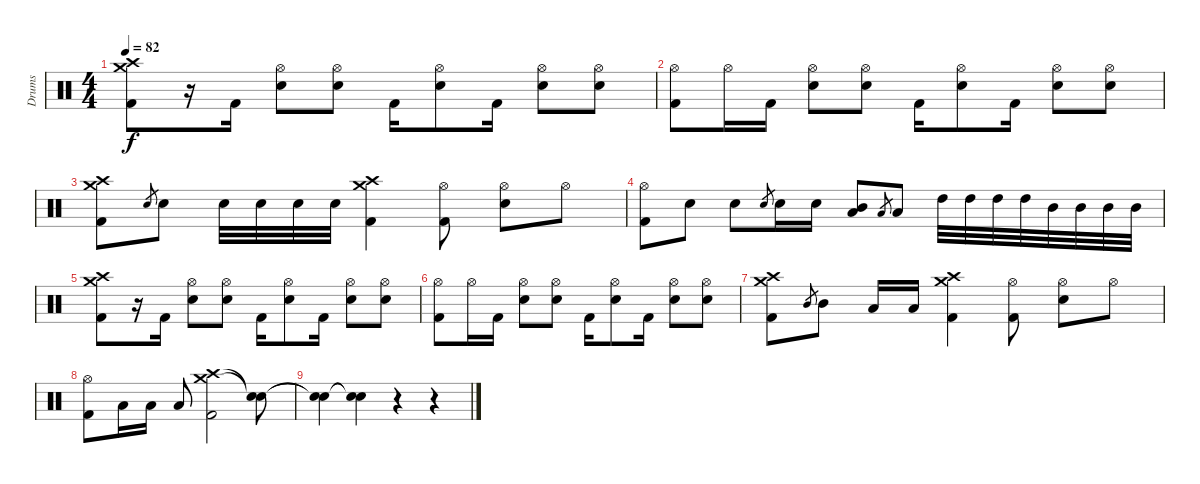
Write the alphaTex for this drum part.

\track ("Drums" "Drums") {instrument percussion}
\staff {score}
\articulation defaults
\ts (4 4)
\tempo 82
\clef neutral
\ks c
("Crash high (hit)" "Crash medium (hit)" "Kick (hit) 2").8{dy f} r.16 "Kick (hit) 2".16 ("Hi-Hat (open)" "Electric Snare (hit)").8 ("Hi-Hat (open)" "Electric Snare (hit)").8 "Kick (hit) 2".16 ("Hi-Hat (open)" "Electric Snare (hit)").8 "Kick (hit) 2".16 ("Hi-Hat (open)" "Electric Snare (hit)").8 ("Hi-Hat (open)" "Electric Snare (hit)").8 |
("Hi-Hat (open)" "Kick (hit) 2").8 "Hi-Hat (open)".16 "Kick (hit) 2".16 ("Hi-Hat (open)" "Electric Snare (hit)").8 ("Hi-Hat (open)" "Electric Snare (hit)").8 "Kick (hit) 2".16 ("Hi-Hat (open)" "Electric Snare (hit)").8 "Kick (hit) 2".16 ("Hi-Hat (open)" "Electric Snare (hit)").8 ("Hi-Hat (open)" "Electric Snare (hit)").8 |
("Crash high (hit)" "Crash medium (hit)" "Kick (hit) 2").8 "Electric Snare (hit)".8{gr} "Electric Snare (hit)".8 "Electric Snare (hit)".32 "Electric Snare (hit)".32 "Electric Snare (hit)".32 "Electric Snare (hit)".32 ("Crash high (hit)" "Crash medium (hit)" "Kick (hit) 2").4 ("Hi-Hat (open)" "Kick (hit) 2").8 ("Hi-Hat (open)" "Electric Snare (hit)").8 "Hi-Hat (open)".8 |
("Hi-Hat (open)" "Kick (hit) 2").8 "Electric Snare (hit)".8 "Electric Snare (hit)".8 "Electric Snare (hit)".8{gr} "Electric Snare (hit)".16 "Electric Snare (hit)".16 ("Mid Tom (hit)" "Low Tom (hit)").8 "Low Tom (hit)".8{gr} "Low Tom (hit)".8 "High Tom (hit)".32 "High Tom (hit)".32 "High Tom (hit)".32 "High Tom (hit)".32 "Mid Tom (hit)".32 "Mid Tom (hit)".32 "Mid Tom (hit)".32 "Mid Tom (hit)".32 |
("Crash high (hit)" "Crash medium (hit)" "Kick (hit) 2").8 r.16 "Kick (hit) 2".16 ("Hi-Hat (open)" "Electric Snare (hit)").8 ("Hi-Hat (open)" "Electric Snare (hit)").8 "Kick (hit) 2".16 ("Hi-Hat (open)" "Electric Snare (hit)").8 "Kick (hit) 2".16 ("Hi-Hat (open)" "Electric Snare (hit)").8 ("Hi-Hat (open)" "Electric Snare (hit)").8 |
("Hi-Hat (open)" "Kick (hit) 2").8 "Hi-Hat (open)".16 "Kick (hit) 2".16 ("Hi-Hat (open)" "Electric Snare (hit)").8 ("Hi-Hat (open)" "Electric Snare (hit)").8 "Kick (hit) 2".16 ("Hi-Hat (open)" "Electric Snare (hit)").8 "Kick (hit) 2".16 ("Hi-Hat (open)" "Electric Snare (hit)").8 ("Hi-Hat (open)" "Electric Snare (hit)").8 |
("Crash high (hit)" "Crash medium (hit)" "Kick (hit) 2").8 "Mid Tom (hit)".8{gr} "Mid Tom (hit)".8 "Low Tom (hit)".16 "Low Tom (hit)".16 ("Crash high (hit)" "Crash medium (hit)" "Kick (hit) 2").4 ("Hi-Hat (open)" "Kick (hit) 2").8 ("Hi-Hat (open)" "Electric Snare (hit)").8 "Hi-Hat (open)".8 |
("Hi-Hat (open)" "Kick (hit) 2").8 "Low Tom (hit)".16 "Low Tom (hit)".16 "Low Tom (hit)".8 ("Crash high (hit)" "Crash medium (hit)" "Kick (hit) 2").2 ("Snare (hit)"{t} "Snare (hit)"{t}).8 |
("Snare (hit)"{t} "Snare (hit)"{t}).4 ("Snare (hit)"{t} "Snare (hit)"{t}).4 r.4 r.4
